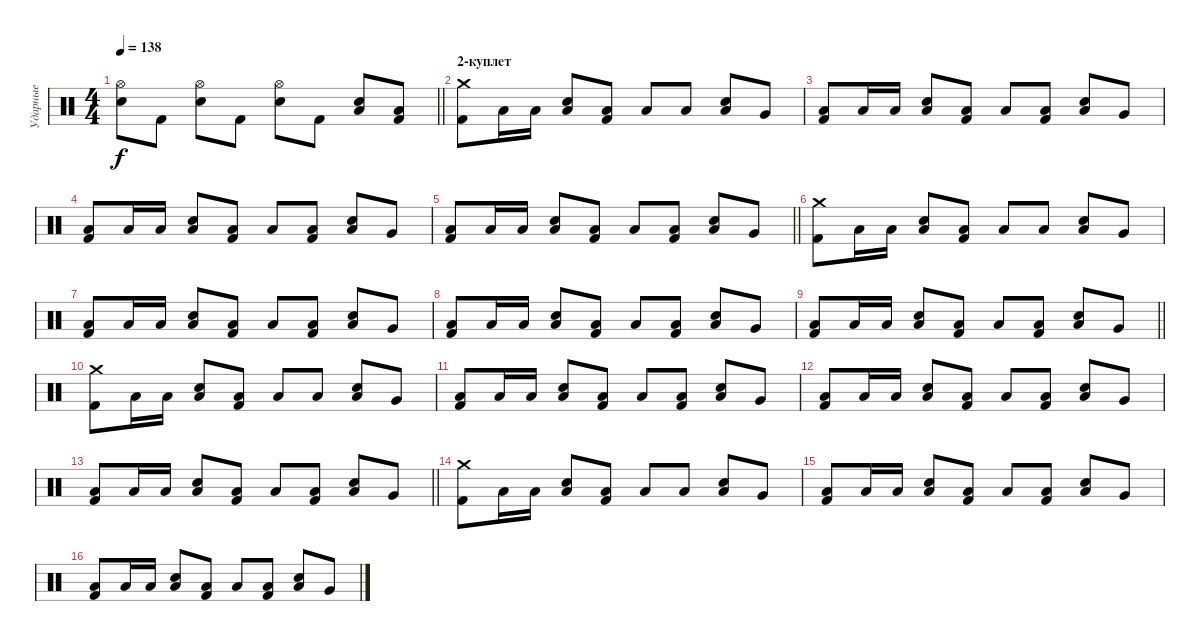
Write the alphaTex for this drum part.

\track ("Ударные" "Ударные") {instrument percussion}
\staff {score}
\articulation defaults
\ts (4 4)
\tempo 138
\clef neutral
\barLineRight lightlight
\ks c
("Hi-Hat (open)" "Snare (hit) 2").8{dy f} "Kick (hit) 2".8 ("Hi-Hat (open)" "Snare (hit) 2").8 "Kick (hit) 2".8 ("Hi-Hat (open)" "Snare (hit) 2").8 "Kick (hit) 2".8 ("Low Tom (hit)" "Snare (hit) 2").8 ("Low Floor Tom (hit)" "Kick (hit) 2").8 |
\section ("" "2-куплет")
("Crash medium (hit)" "Kick (hit) 2").8 "Low Floor Tom (hit)".16 "Low Floor Tom (hit)".16 ("Low Floor Tom (hit)" "Snare (hit) 2").8 ("Low Floor Tom (hit)" "Kick (hit) 2").8 "Low Floor Tom (hit)".8 "Low Floor Tom (hit)".8 ("Low Floor Tom (hit)" "Snare (hit) 2").8 "Very Low Tom (hit)".8 |
("Low Tom (hit)" "Kick (hit) 2").8 "Low Floor Tom (hit)".16 "Low Floor Tom (hit)".16 ("Low Floor Tom (hit)" "Snare (hit) 2").8 ("Low Floor Tom (hit)" "Kick (hit) 2").8 "Low Floor Tom (hit)".8 ("Low Floor Tom (hit)" "Kick (hit) 2").8 ("Low Floor Tom (hit)" "Snare (hit) 2").8 "Very Low Tom (hit)".8 |
("Low Tom (hit)" "Kick (hit) 2").8 "Low Floor Tom (hit)".16 "Low Floor Tom (hit)".16 ("Low Floor Tom (hit)" "Snare (hit) 2").8 ("Low Floor Tom (hit)" "Kick (hit) 2").8 "Low Floor Tom (hit)".8 ("Low Floor Tom (hit)" "Kick (hit) 2").8 ("Low Floor Tom (hit)" "Snare (hit) 2").8 "Very Low Tom (hit)".8 |
\barLineRight lightlight
("Low Tom (hit)" "Kick (hit) 2").8 "Low Floor Tom (hit)".16 "Low Floor Tom (hit)".16 ("Low Floor Tom (hit)" "Snare (hit) 2").8 ("Low Floor Tom (hit)" "Kick (hit) 2").8 "Low Floor Tom (hit)".8 ("Low Floor Tom (hit)" "Kick (hit) 2").8 ("Low Floor Tom (hit)" "Snare (hit) 2").8 "Very Low Tom (hit)".8 |
("Crash medium (hit)" "Kick (hit) 2").8 "Low Floor Tom (hit)".16 "Low Floor Tom (hit)".16 ("Low Floor Tom (hit)" "Snare (hit) 2").8 ("Low Floor Tom (hit)" "Kick (hit) 2").8 "Low Floor Tom (hit)".8 "Low Floor Tom (hit)".8 ("Low Floor Tom (hit)" "Snare (hit) 2").8 "Very Low Tom (hit)".8 |
("Low Tom (hit)" "Kick (hit) 2").8 "Low Floor Tom (hit)".16 "Low Floor Tom (hit)".16 ("Low Floor Tom (hit)" "Snare (hit) 2").8 ("Low Floor Tom (hit)" "Kick (hit) 2").8 "Low Floor Tom (hit)".8 ("Low Floor Tom (hit)" "Kick (hit) 2").8 ("Low Floor Tom (hit)" "Snare (hit) 2").8 "Very Low Tom (hit)".8 |
("Low Tom (hit)" "Kick (hit) 2").8 "Low Floor Tom (hit)".16 "Low Floor Tom (hit)".16 ("Low Floor Tom (hit)" "Snare (hit) 2").8 ("Low Floor Tom (hit)" "Kick (hit) 2").8 "Low Floor Tom (hit)".8 ("Low Floor Tom (hit)" "Kick (hit) 2").8 ("Low Floor Tom (hit)" "Snare (hit) 2").8 "Very Low Tom (hit)".8 |
\barLineRight lightlight
("Low Tom (hit)" "Kick (hit) 2").8 "Low Floor Tom (hit)".16 "Low Floor Tom (hit)".16 ("Low Floor Tom (hit)" "Snare (hit) 2").8 ("Low Floor Tom (hit)" "Kick (hit) 2").8 "Low Floor Tom (hit)".8 ("Low Floor Tom (hit)" "Kick (hit) 2").8 ("Low Floor Tom (hit)" "Snare (hit) 2").8 "Very Low Tom (hit)".8 |
("Crash medium (hit)" "Kick (hit) 2").8 "Low Floor Tom (hit)".16 "Low Floor Tom (hit)".16 ("Low Floor Tom (hit)" "Snare (hit) 2").8 ("Low Floor Tom (hit)" "Kick (hit) 2").8 "Low Floor Tom (hit)".8 "Low Floor Tom (hit)".8 ("Low Floor Tom (hit)" "Snare (hit) 2").8 "Very Low Tom (hit)".8 |
("Low Tom (hit)" "Kick (hit) 2").8 "Low Floor Tom (hit)".16 "Low Floor Tom (hit)".16 ("Low Floor Tom (hit)" "Snare (hit) 2").8 ("Low Floor Tom (hit)" "Kick (hit) 2").8 "Low Floor Tom (hit)".8 ("Low Floor Tom (hit)" "Kick (hit) 2").8 ("Low Floor Tom (hit)" "Snare (hit) 2").8 "Very Low Tom (hit)".8 |
("Low Tom (hit)" "Kick (hit) 2").8 "Low Floor Tom (hit)".16 "Low Floor Tom (hit)".16 ("Low Floor Tom (hit)" "Snare (hit) 2").8 ("Low Floor Tom (hit)" "Kick (hit) 2").8 "Low Floor Tom (hit)".8 ("Low Floor Tom (hit)" "Kick (hit) 2").8 ("Low Floor Tom (hit)" "Snare (hit) 2").8 "Very Low Tom (hit)".8 |
\barLineRight lightlight
("Low Tom (hit)" "Kick (hit) 2").8 "Low Floor Tom (hit)".16 "Low Floor Tom (hit)".16 ("Low Floor Tom (hit)" "Snare (hit) 2").8 ("Low Floor Tom (hit)" "Kick (hit) 2").8 "Low Floor Tom (hit)".8 ("Low Floor Tom (hit)" "Kick (hit) 2").8 ("Low Floor Tom (hit)" "Snare (hit) 2").8 "Very Low Tom (hit)".8 |
("Crash medium (hit)" "Kick (hit) 2").8 "Low Floor Tom (hit)".16 "Low Floor Tom (hit)".16 ("Low Floor Tom (hit)" "Snare (hit) 2").8 ("Low Floor Tom (hit)" "Kick (hit) 2").8 "Low Floor Tom (hit)".8 "Low Floor Tom (hit)".8 ("Low Floor Tom (hit)" "Snare (hit) 2").8 "Very Low Tom (hit)".8 |
("Low Tom (hit)" "Kick (hit) 2").8 "Low Floor Tom (hit)".16 "Low Floor Tom (hit)".16 ("Low Floor Tom (hit)" "Snare (hit) 2").8 ("Low Floor Tom (hit)" "Kick (hit) 2").8 "Low Floor Tom (hit)".8 ("Low Floor Tom (hit)" "Kick (hit) 2").8 ("Low Floor Tom (hit)" "Snare (hit) 2").8 "Very Low Tom (hit)".8 |
("Low Tom (hit)" "Kick (hit) 2").8 "Low Floor Tom (hit)".16 "Low Floor Tom (hit)".16 ("Low Floor Tom (hit)" "Snare (hit) 2").8 ("Low Floor Tom (hit)" "Kick (hit) 2").8 "Low Floor Tom (hit)".8 ("Low Floor Tom (hit)" "Kick (hit) 2").8 ("Low Floor Tom (hit)" "Snare (hit) 2").8 "Very Low Tom (hit)".8
